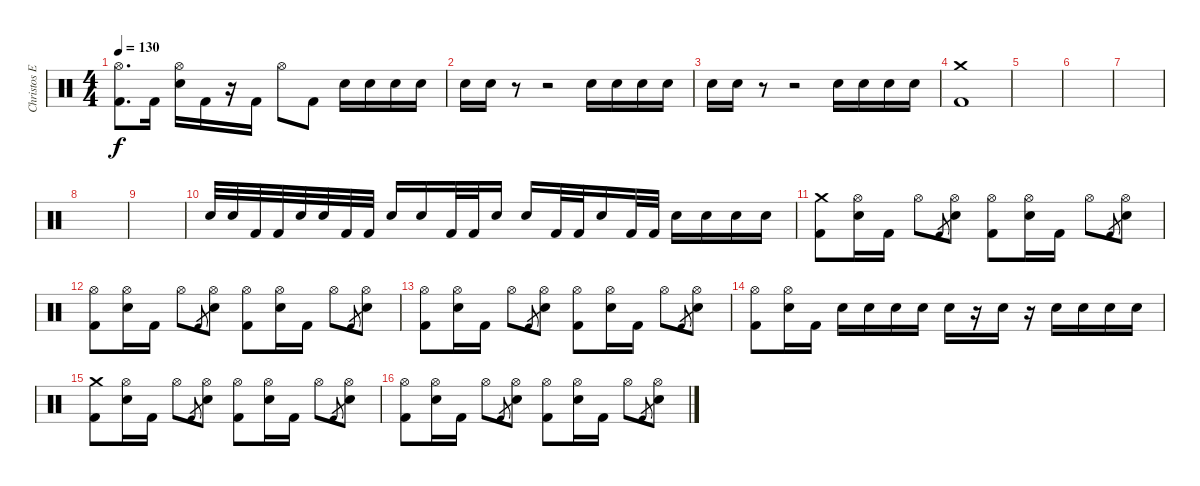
\track ("Christos Efthimiadis" "Christos E") {instrument percussion}
\staff {score}
\articulation defaults
\ts (4 4)
\tempo 130
\clef neutral
\ks c
("Hi-Hat (open)" "Kick (hit) 2").8{d dy f} "Kick (hit) 2".16 ("Hi-Hat (open)" "Snare (hit) 2").16 "Kick (hit) 2".16 r.16 "Kick (hit) 2".16 "Hi-Hat (open)".8 "Kick (hit) 2".8 "Snare (hit) 2".16 "Snare (hit) 2".16 "Snare (hit) 2".16 "Snare (hit) 2".16 |
"Snare (hit) 2".16 "Snare (hit) 2".16 r.8 r.2 "Snare (hit) 2".16 "Snare (hit) 2".16 "Snare (hit) 2".16 "Snare (hit) 2".16 |
"Snare (hit) 2".16 "Snare (hit) 2".16 r.8 r.2 "Snare (hit) 2".16 "Snare (hit) 2".16 "Snare (hit) 2".16 "Snare (hit) 2".16 |
("Crash medium (hit)" "Kick (hit) 2").1 |
|
|
|
|
|
"Snare (hit) 2".32 "Snare (hit) 2".32 "Kick (hit) 2".32 "Kick (hit) 2".32 "Snare (hit) 2".32 "Snare (hit) 2".32 "Kick (hit) 2".32 "Kick (hit) 2".32 "Snare (hit) 2".16 "Snare (hit) 2".16 "Kick (hit) 2".32 "Kick (hit) 2".32 "Snare (hit) 2".16 "Snare (hit) 2".16 "Kick (hit) 2".32 "Kick (hit) 2".32 "Snare (hit) 2".16 "Kick (hit) 2".32 "Kick (hit) 2".32 "Snare (hit) 2".16 "Snare (hit) 2".16 "Snare (hit) 2".16 "Snare (hit) 2".16 |
("Crash medium (hit)" "Kick (hit) 2").8 ("Hi-Hat (open)" "Snare (hit) 2").16 "Kick (hit) 2".16 "Hi-Hat (open)".8 "Kick (hit) 2".8{gr} ("Hi-Hat (open)" "Snare (hit) 2").8 ("Hi-Hat (open)" "Kick (hit) 2").8 ("Hi-Hat (open)" "Snare (hit) 2").16 "Kick (hit) 2".16 "Hi-Hat (open)".8 "Kick (hit) 2".8{gr} ("Hi-Hat (open)" "Snare (hit) 2").8 |
("Hi-Hat (open)" "Kick (hit) 2").8 ("Hi-Hat (open)" "Snare (hit) 2").16 "Kick (hit) 2".16 "Hi-Hat (open)".8 "Kick (hit) 2".8{gr} ("Hi-Hat (open)" "Snare (hit) 2").8 ("Hi-Hat (open)" "Kick (hit) 2").8 ("Hi-Hat (open)" "Snare (hit) 2").16 "Kick (hit) 2".16 "Hi-Hat (open)".8 "Kick (hit) 2".8{gr} ("Hi-Hat (open)" "Snare (hit) 2").8 |
("Hi-Hat (open)" "Kick (hit) 2").8 ("Hi-Hat (open)" "Snare (hit) 2").16 "Kick (hit) 2".16 "Hi-Hat (open)".8 "Kick (hit) 2".8{gr} ("Hi-Hat (open)" "Snare (hit) 2").8 ("Hi-Hat (open)" "Kick (hit) 2").8 ("Hi-Hat (open)" "Snare (hit) 2").16 "Kick (hit) 2".16 "Hi-Hat (open)".8 "Kick (hit) 2".8{gr} ("Hi-Hat (open)" "Snare (hit) 2").8 |
("Hi-Hat (open)" "Kick (hit) 2").8 ("Hi-Hat (open)" "Snare (hit) 2").16 "Kick (hit) 2".16 "Snare (hit) 2".16 "Snare (hit) 2".16 "Snare (hit) 2".16 "Snare (hit) 2".16 "Snare (hit) 2".16 r.16 "Snare (hit) 2".16 r.16 "Snare (hit) 2".16 "Snare (hit) 2".16 "Snare (hit) 2".16 "Snare (hit) 2".16 |
("Crash medium (hit)" "Kick (hit) 2").8 ("Hi-Hat (open)" "Snare (hit) 2").16 "Kick (hit) 2".16 "Hi-Hat (open)".8 "Kick (hit) 2".8{gr} ("Hi-Hat (open)" "Snare (hit) 2").8 ("Hi-Hat (open)" "Kick (hit) 2").8 ("Hi-Hat (open)" "Snare (hit) 2").16 "Kick (hit) 2".16 "Hi-Hat (open)".8 "Kick (hit) 2".8{gr} ("Hi-Hat (open)" "Snare (hit) 2").8 |
("Hi-Hat (open)" "Kick (hit) 2").8 ("Hi-Hat (open)" "Snare (hit) 2").16 "Kick (hit) 2".16 "Hi-Hat (open)".8 "Kick (hit) 2".8{gr} ("Hi-Hat (open)" "Snare (hit) 2").8 ("Hi-Hat (open)" "Kick (hit) 2").8 ("Hi-Hat (open)" "Snare (hit) 2").16 "Kick (hit) 2".16 "Hi-Hat (open)".8 "Kick (hit) 2".8{gr} ("Hi-Hat (open)" "Snare (hit) 2").8
